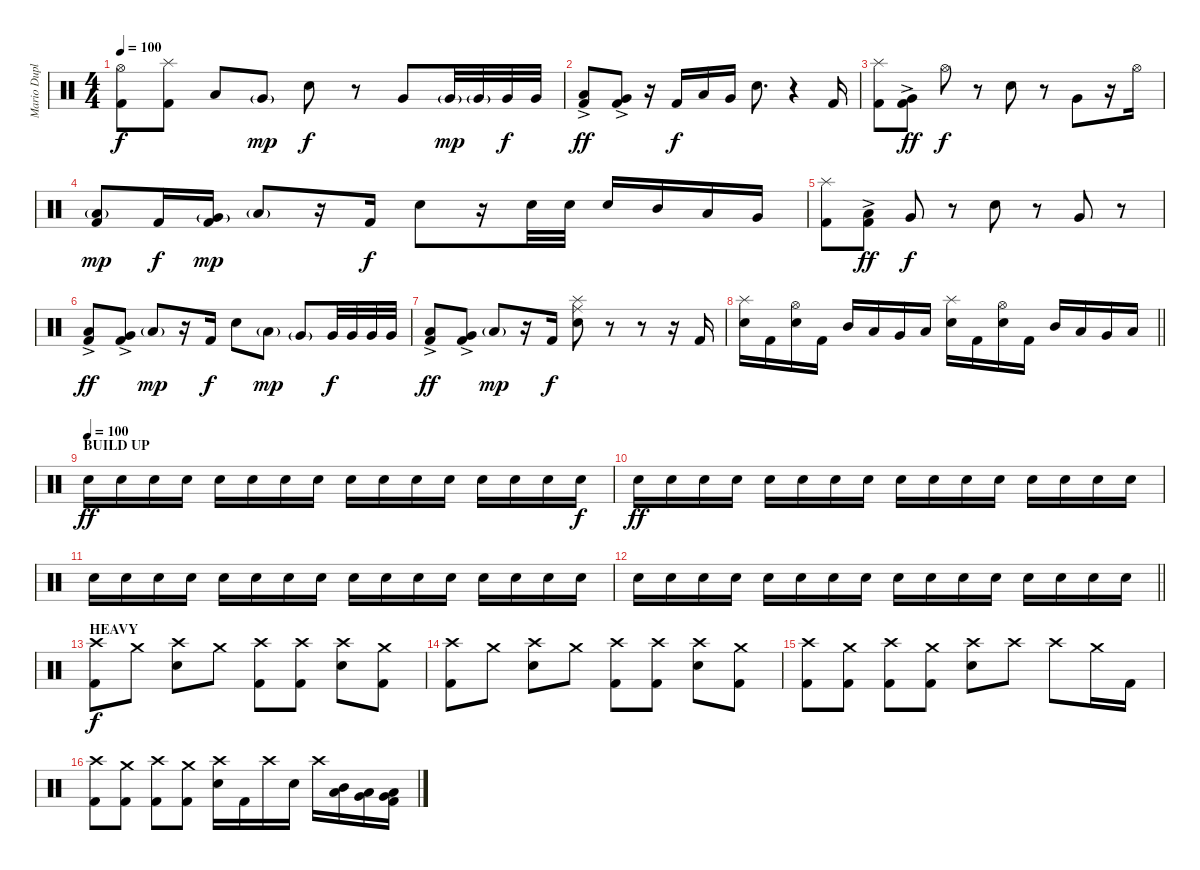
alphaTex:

\track ("Mario Duplantier - DRUMS" "Mario Dupl") {instrument percussion}
\staff {score}
\articulation defaults
\ts (4 4)
\tempo 100
\clef neutral
\ks c
("Hi-Hat (open)" "Kick (hit) 2").8{dy f} ("Splash (hit)" "Kick (hit) 2").8 "Low Tom (hit)".8 "Very Low Tom (hit)"{g}.8{dy mp} "Electric Snare (hit)".8{dy f} r.8 "Very Low Tom (hit)".8 "Very Low Tom (hit)"{g}.32{dy mp} "Very Low Tom (hit)"{g}.32 "Very Low Tom (hit)".32{dy f} "Very Low Tom (hit)".32 |
("Low Tom (hit)"{ac} "Kick (hit) 2").8{dy ff} ("Very Low Tom (hit)"{ac} "Kick (hit) 2").8 r.16 "Kick (hit) 2".16{dy f} "Low Tom (hit)".16 "Very Low Tom (hit)".16 "Electric Snare (hit)".8{d} r.4 "Kick (hit) 2".16 |
("Splash (hit)" "Kick (hit) 2").8 ("Very Low Tom (hit)"{ac} "Kick (hit) 2").8{dy ff} "Hi-Hat (open)".8{dy f} r.8 "Electric Snare (hit)".8 r.8 "Very Low Tom (hit)".8 r.16 "Hi-Hat (open)".16 |
("Low Tom (hit)"{g} "Kick (hit) 2").8{dy mp} "Kick (hit) 2".16{dy f} ("Very Low Tom (hit)"{g} "Kick (hit) 2").16{dy mp} "Low Floor Tom (hit)"{g}.8 r.16 "Kick (hit) 2".16{dy f} "Electric Snare (hit)".8 r.16 "Electric Snare (hit)".32 "Electric Snare (hit)".32 "Electric Snare (hit)".16 "Mid Tom (hit)".16 "Low Tom (hit)".16 "Very Low Tom (hit)".16 |
("Splash (hit)" "Kick (hit) 2").8 ("Low Tom (hit)"{ac} "Kick (hit) 2").8{dy ff} "Very Low Tom (hit)".8{dy f} r.8 "Electric Snare (hit)".8 r.8 "Very Low Tom (hit)".8 r.8 |
("Low Tom (hit)"{ac} "Kick (hit) 2").8{dy ff} ("Very Low Tom (hit)"{ac} "Kick (hit) 2").8 "Low Floor Tom (hit)"{g}.8{dy mp} r.16 "Kick (hit) 2".16{dy f} "Electric Snare (hit)".8 "Low Tom (hit)"{g}.8{dy mp} "Very Low Tom (hit)"{g}.8 "Very Low Tom (hit)".32{dy f} "Very Low Tom (hit)".32 "Very Low Tom (hit)".32 "Very Low Tom (hit)".32 |
("Low Tom (hit)"{ac} "Kick (hit) 2").8{dy ff} ("Very Low Tom (hit)"{ac} "Kick (hit) 2").8 "Low Floor Tom (hit)"{g}.8{dy mp} r.16 "Kick (hit) 2".16{dy f} ("Splash (hit)" "Ride (middle)" "Electric Snare (hit)").8 r.8 r.8 r.16 "Kick (hit) 2".16 |
\barLineRight lightlight
("Splash (hit)" "Electric Snare (hit)").16 "Kick (hit) 2".16 ("Hi-Hat (open)" "Electric Snare (hit)").16 "Kick (hit) 2".16 "Mid Tom (hit)".16 "Low Tom (hit)".16 "Very Low Tom (hit)".16 "Low Floor Tom (hit)".16 ("Splash (hit)" "Electric Snare (hit)").16 "Kick (hit) 2".16 ("Hi-Hat (open)" "Electric Snare (hit)").16 "Kick (hit) 2".16 "Mid Tom (hit)".16 "Low Tom (hit)".16 "Very Low Tom (hit)".16 "Low Floor Tom (hit)".16 |
\section ("" "BUILD UP")
\tempo (100)
"Electric Snare (hit)".16{dy ff volume 5} "Electric Snare (hit)".16{volume 8} "Electric Snare (hit)".16 "Electric Snare (hit)".16 "Electric Snare (hit)".16 "Electric Snare (hit)".16 "Electric Snare (hit)".16 "Electric Snare (hit)".16 "Electric Snare (hit)".16 "Electric Snare (hit)".16 "Electric Snare (hit)".16 "Electric Snare (hit)".16 "Electric Snare (hit)".16 "Electric Snare (hit)".16 "Electric Snare (hit)".16 "Electric Snare (hit)".16{dy f} |
"Electric Snare (hit)".16{dy ff} "Electric Snare (hit)".16 "Electric Snare (hit)".16 "Electric Snare (hit)".16 "Electric Snare (hit)".16 "Electric Snare (hit)".16 "Electric Snare (hit)".16 "Electric Snare (hit)".16 "Electric Snare (hit)".16 "Electric Snare (hit)".16 "Electric Snare (hit)".16 "Electric Snare (hit)".16 "Electric Snare (hit)".16 "Electric Snare (hit)".16 "Electric Snare (hit)".16 "Electric Snare (hit)".16 |
"Electric Snare (hit)".16 "Electric Snare (hit)".16 "Electric Snare (hit)".16 "Electric Snare (hit)".16 "Electric Snare (hit)".16 "Electric Snare (hit)".16 "Electric Snare (hit)".16 "Electric Snare (hit)".16 "Electric Snare (hit)".16 "Electric Snare (hit)".16 "Electric Snare (hit)".16 "Electric Snare (hit)".16 "Electric Snare (hit)".16{volume 16} "Electric Snare (hit)".16 "Electric Snare (hit)".16 "Electric Snare (hit)".16 |
\barLineRight lightlight "Electric Snare (hit)".16 "Electric Snare (hit)".16 "Electric Snare (hit)".16 "Electric Snare (hit)".16 "Electric Snare (hit)".16 "Electric Snare (hit)".16 "Electric Snare (hit)".16 "Electric Snare (hit)".16 "Electric Snare (hit)".16 "Electric Snare (hit)".16 "Electric Snare (hit)".16 "Electric Snare (hit)".16 "Electric Snare (hit)".16 "Electric Snare (hit)".16 "Electric Snare (hit)".16 "Electric Snare (hit)".16
|
\section ("" "HEAVY")
("Crash high (hit)" "Kick (hit) 2").8{dy f} "Crash medium (hit)".8 ("Crash high (hit)" "Electric Snare (hit)").8 "Crash medium (hit)".8 ("Crash high (hit)" "Kick (hit) 2").8 ("Crash high (hit)" "Kick (hit) 2").8 ("Crash high (hit)" "Electric Snare (hit)").8 ("Crash medium (hit)" "Kick (hit) 2").8 |
("Crash high (hit)" "Kick (hit) 2").8 "Crash medium (hit)".8 ("Crash high (hit)" "Electric Snare (hit)").8 "Crash medium (hit)".8 ("Crash high (hit)" "Kick (hit) 2").8 ("Crash high (hit)" "Kick (hit) 2").8 ("Crash high (hit)" "Electric Snare (hit)").8 ("Crash medium (hit)" "Kick (hit) 2").8 |
("Crash high (hit)" "Kick (hit) 2").8 ("Crash medium (hit)" "Kick (hit) 2").8 ("Crash high (hit)" "Kick (hit) 2").8 ("Crash medium (hit)" "Kick (hit) 2").8 ("Crash high (hit)" "Electric Snare (hit)").8 "Crash high (hit)".8 "Crash high (hit)".8 "Crash medium (hit)".16 "Kick (hit) 2".16 |
("Crash high (hit)" "Kick (hit) 2").8 ("Crash medium (hit)" "Kick (hit) 2").8 ("Crash high (hit)" "Kick (hit) 2").8 ("Crash medium (hit)" "Kick (hit) 2").8 ("Crash high (hit)" "Electric Snare (hit)").16 "Kick (hit) 2".16 "Crash high (hit)".16 "Electric Snare (hit)".16 "Crash high (hit)".16 ("Low Tom (hit)" "Mid Tom (hit)").16 ("Very Low Tom (hit)" "Low Tom (hit)").16 ("Low Floor Tom (hit)" "Very Low Tom (hit)" "Kick (hit) 2").16
